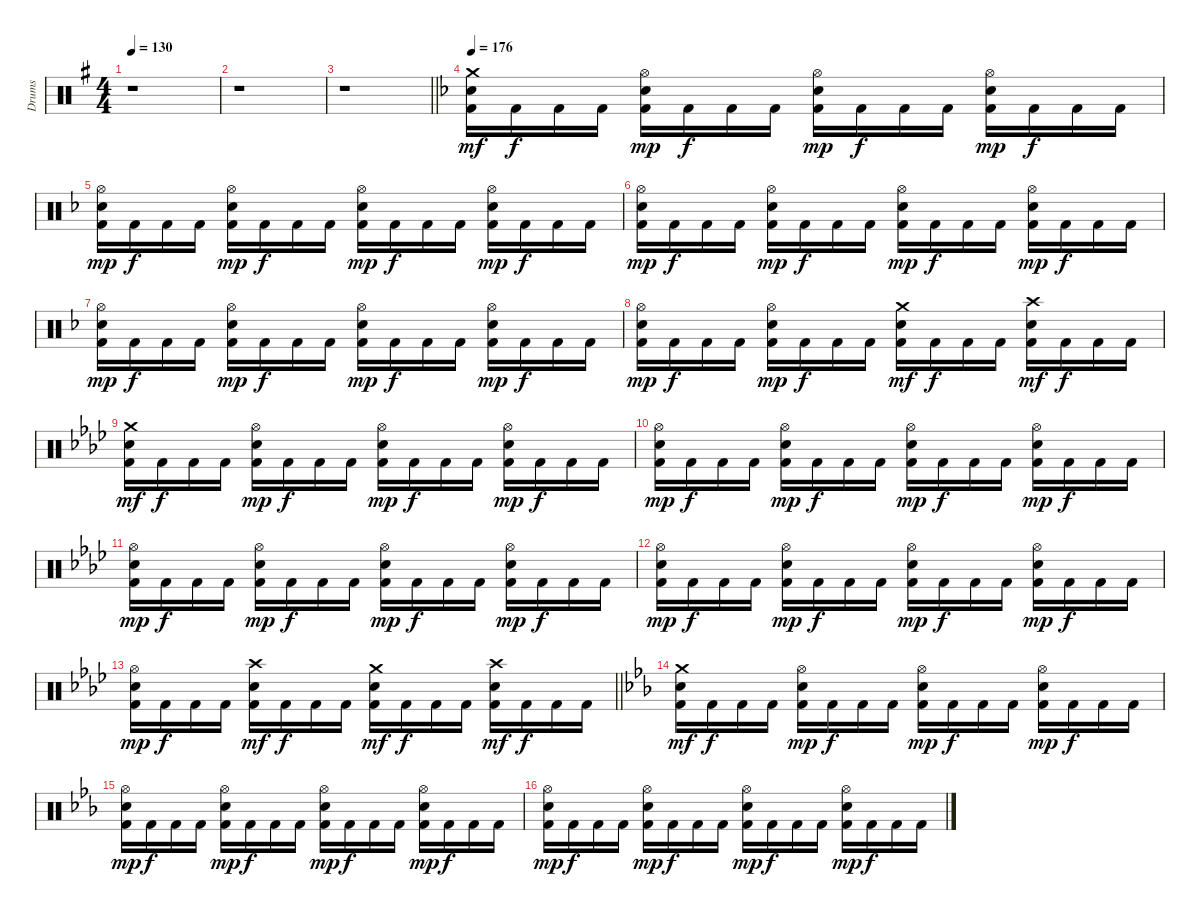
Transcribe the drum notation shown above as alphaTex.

\track ("Drums" "Drums") {instrument percussion}
\staff {score}
\articulation defaults
\ts (4 4)
\tempo 130
\clef neutral
\ks g
r.1{dy f} |
r.1 |
\barLineRight lightlight
r.1 |
\section ("" "")
\tempo 176
\ks dminor
("Crash medium (hit)" "Electric Snare (hit)" "Kick (hit) 2").16{dy mf} "Kick (hit) 2".16{dy f} "Kick (hit) 2".16 "Kick (hit) 2".16 ("Hi-Hat (open)" "Electric Snare (hit)" "Kick (hit) 2").16{dy mp} "Kick (hit) 2".16{dy f} "Kick (hit) 2".16 "Kick (hit) 2".16 ("Hi-Hat (open)" "Electric Snare (hit)" "Kick (hit) 2").16{dy mp} "Kick (hit) 2".16{dy f} "Kick (hit) 2".16 "Kick (hit) 2".16 ("Hi-Hat (open)" "Electric Snare (hit)" "Kick (hit) 2").16{dy mp} "Kick (hit) 2".16{dy f} "Kick (hit) 2".16 "Kick (hit) 2".16 |
("Hi-Hat (open)" "Electric Snare (hit)" "Kick (hit) 2").16{dy mp} "Kick (hit) 2".16{dy f} "Kick (hit) 2".16 "Kick (hit) 2".16 ("Hi-Hat (open)" "Electric Snare (hit)" "Kick (hit) 2").16{dy mp} "Kick (hit) 2".16{dy f} "Kick (hit) 2".16 "Kick (hit) 2".16 ("Hi-Hat (open)" "Electric Snare (hit)" "Kick (hit) 2").16{dy mp} "Kick (hit) 2".16{dy f} "Kick (hit) 2".16 "Kick (hit) 2".16 ("Hi-Hat (open)" "Electric Snare (hit)" "Kick (hit) 2").16{dy mp} "Kick (hit) 2".16{dy f} "Kick (hit) 2".16 "Kick (hit) 2".16 |
("Hi-Hat (open)" "Electric Snare (hit)" "Kick (hit) 2").16{dy mp} "Kick (hit) 2".16{dy f} "Kick (hit) 2".16 "Kick (hit) 2".16 ("Hi-Hat (open)" "Electric Snare (hit)" "Kick (hit) 2").16{dy mp} "Kick (hit) 2".16{dy f} "Kick (hit) 2".16 "Kick (hit) 2".16 ("Hi-Hat (open)" "Electric Snare (hit)" "Kick (hit) 2").16{dy mp} "Kick (hit) 2".16{dy f} "Kick (hit) 2".16 "Kick (hit) 2".16 ("Hi-Hat (open)" "Electric Snare (hit)" "Kick (hit) 2").16{dy mp} "Kick (hit) 2".16{dy f} "Kick (hit) 2".16 "Kick (hit) 2".16 |
("Hi-Hat (open)" "Electric Snare (hit)" "Kick (hit) 2").16{dy mp} "Kick (hit) 2".16{dy f} "Kick (hit) 2".16 "Kick (hit) 2".16 ("Hi-Hat (open)" "Electric Snare (hit)" "Kick (hit) 2").16{dy mp} "Kick (hit) 2".16{dy f} "Kick (hit) 2".16 "Kick (hit) 2".16 ("Hi-Hat (open)" "Electric Snare (hit)" "Kick (hit) 2").16{dy mp} "Kick (hit) 2".16{dy f} "Kick (hit) 2".16 "Kick (hit) 2".16 ("Hi-Hat (open)" "Electric Snare (hit)" "Kick (hit) 2").16{dy mp} "Kick (hit) 2".16{dy f} "Kick (hit) 2".16 "Kick (hit) 2".16 |
("Hi-Hat (open)" "Electric Snare (hit)" "Kick (hit) 2").16{dy mp} "Kick (hit) 2".16{dy f} "Kick (hit) 2".16 "Kick (hit) 2".16 ("Hi-Hat (open)" "Electric Snare (hit)" "Kick (hit) 2").16{dy mp} "Kick (hit) 2".16{dy f} "Kick (hit) 2".16 "Kick (hit) 2".16 ("Crash medium (hit)" "Electric Snare (hit)" "Kick (hit) 2").16{dy mf} "Kick (hit) 2".16{dy f} "Kick (hit) 2".16 "Kick (hit) 2".16 ("Crash high (hit)" "Electric Snare (hit)" "Kick (hit) 2").16{dy mf} "Kick (hit) 2".16{dy f} "Kick (hit) 2".16 "Kick (hit) 2".16 |
\ks fminor
("Crash medium (hit)" "Electric Snare (hit)" "Kick (hit) 2").16{dy mf} "Kick (hit) 2".16{dy f} "Kick (hit) 2".16 "Kick (hit) 2".16 ("Hi-Hat (open)" "Electric Snare (hit)" "Kick (hit) 2").16{dy mp} "Kick (hit) 2".16{dy f} "Kick (hit) 2".16 "Kick (hit) 2".16 ("Hi-Hat (open)" "Electric Snare (hit)" "Kick (hit) 2").16{dy mp} "Kick (hit) 2".16{dy f} "Kick (hit) 2".16 "Kick (hit) 2".16 ("Hi-Hat (open)" "Electric Snare (hit)" "Kick (hit) 2").16{dy mp} "Kick (hit) 2".16{dy f} "Kick (hit) 2".16 "Kick (hit) 2".16 |
("Hi-Hat (open)" "Electric Snare (hit)" "Kick (hit) 2").16{dy mp} "Kick (hit) 2".16{dy f} "Kick (hit) 2".16 "Kick (hit) 2".16 ("Hi-Hat (open)" "Electric Snare (hit)" "Kick (hit) 2").16{dy mp} "Kick (hit) 2".16{dy f} "Kick (hit) 2".16 "Kick (hit) 2".16 ("Hi-Hat (open)" "Electric Snare (hit)" "Kick (hit) 2").16{dy mp} "Kick (hit) 2".16{dy f} "Kick (hit) 2".16 "Kick (hit) 2".16 ("Hi-Hat (open)" "Electric Snare (hit)" "Kick (hit) 2").16{dy mp} "Kick (hit) 2".16{dy f} "Kick (hit) 2".16 "Kick (hit) 2".16 |
("Hi-Hat (open)" "Electric Snare (hit)" "Kick (hit) 2").16{dy mp} "Kick (hit) 2".16{dy f} "Kick (hit) 2".16 "Kick (hit) 2".16 ("Hi-Hat (open)" "Electric Snare (hit)" "Kick (hit) 2").16{dy mp} "Kick (hit) 2".16{dy f} "Kick (hit) 2".16 "Kick (hit) 2".16 ("Hi-Hat (open)" "Electric Snare (hit)" "Kick (hit) 2").16{dy mp} "Kick (hit) 2".16{dy f} "Kick (hit) 2".16 "Kick (hit) 2".16 ("Hi-Hat (open)" "Electric Snare (hit)" "Kick (hit) 2").16{dy mp} "Kick (hit) 2".16{dy f} "Kick (hit) 2".16 "Kick (hit) 2".16 |
("Hi-Hat (open)" "Electric Snare (hit)" "Kick (hit) 2").16{dy mp} "Kick (hit) 2".16{dy f} "Kick (hit) 2".16 "Kick (hit) 2".16 ("Hi-Hat (open)" "Electric Snare (hit)" "Kick (hit) 2").16{dy mp} "Kick (hit) 2".16{dy f} "Kick (hit) 2".16 "Kick (hit) 2".16 ("Hi-Hat (open)" "Electric Snare (hit)" "Kick (hit) 2").16{dy mp} "Kick (hit) 2".16{dy f} "Kick (hit) 2".16 "Kick (hit) 2".16 ("Hi-Hat (open)" "Electric Snare (hit)" "Kick (hit) 2").16{dy mp} "Kick (hit) 2".16{dy f} "Kick (hit) 2".16 "Kick (hit) 2".16 |
\barLineRight lightlight
("Hi-Hat (open)" "Electric Snare (hit)" "Kick (hit) 2").16{dy mp} "Kick (hit) 2".16{dy f} "Kick (hit) 2".16 "Kick (hit) 2".16 ("Crash high (hit)" "Electric Snare (hit)" "Kick (hit) 2").16{dy mf} "Kick (hit) 2".16{dy f} "Kick (hit) 2".16 "Kick (hit) 2".16 ("Crash medium (hit)" "Electric Snare (hit)" "Kick (hit) 2").16{dy mf} "Kick (hit) 2".16{dy f} "Kick (hit) 2".16 "Kick (hit) 2".16 ("Crash high (hit)" "Electric Snare (hit)" "Kick (hit) 2").16{dy mf} "Kick (hit) 2".16{dy f} "Kick (hit) 2".16 "Kick (hit) 2".16 |
\section ("" "")
\ks cminor
("Crash medium (hit)" "Electric Snare (hit)" "Kick (hit) 2").16{dy mf} "Kick (hit) 2".16{dy f} "Kick (hit) 2".16 "Kick (hit) 2".16 ("Hi-Hat (open)" "Electric Snare (hit)" "Kick (hit) 2").16{dy mp} "Kick (hit) 2".16{dy f} "Kick (hit) 2".16 "Kick (hit) 2".16 ("Hi-Hat (open)" "Electric Snare (hit)" "Kick (hit) 2").16{dy mp} "Kick (hit) 2".16{dy f} "Kick (hit) 2".16 "Kick (hit) 2".16 ("Hi-Hat (open)" "Electric Snare (hit)" "Kick (hit) 2").16{dy mp} "Kick (hit) 2".16{dy f} "Kick (hit) 2".16 "Kick (hit) 2".16 |
("Hi-Hat (open)" "Electric Snare (hit)" "Kick (hit) 2").16{dy mp} "Kick (hit) 2".16{dy f} "Kick (hit) 2".16 "Kick (hit) 2".16 ("Hi-Hat (open)" "Electric Snare (hit)" "Kick (hit) 2").16{dy mp} "Kick (hit) 2".16{dy f} "Kick (hit) 2".16 "Kick (hit) 2".16 ("Hi-Hat (open)" "Electric Snare (hit)" "Kick (hit) 2").16{dy mp} "Kick (hit) 2".16{dy f} "Kick (hit) 2".16 "Kick (hit) 2".16 ("Hi-Hat (open)" "Electric Snare (hit)" "Kick (hit) 2").16{dy mp} "Kick (hit) 2".16{dy f} "Kick (hit) 2".16 "Kick (hit) 2".16 |
("Hi-Hat (open)" "Electric Snare (hit)" "Kick (hit) 2").16{dy mp} "Kick (hit) 2".16{dy f} "Kick (hit) 2".16 "Kick (hit) 2".16 ("Hi-Hat (open)" "Electric Snare (hit)" "Kick (hit) 2").16{dy mp} "Kick (hit) 2".16{dy f} "Kick (hit) 2".16 "Kick (hit) 2".16 ("Hi-Hat (open)" "Electric Snare (hit)" "Kick (hit) 2").16{dy mp} "Kick (hit) 2".16{dy f} "Kick (hit) 2".16 "Kick (hit) 2".16 ("Hi-Hat (open)" "Electric Snare (hit)" "Kick (hit) 2").16{dy mp} "Kick (hit) 2".16{dy f} "Kick (hit) 2".16 "Kick (hit) 2".16
